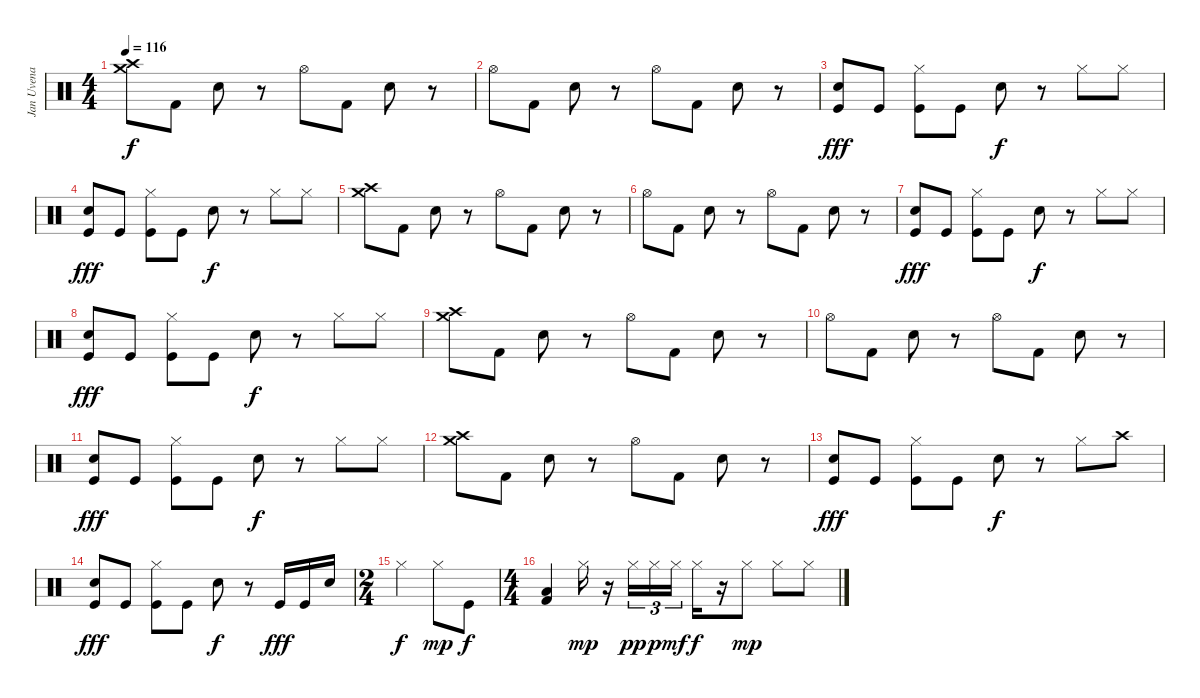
\track ("Jan Uvena" "Jan Uvena") {instrument percussion}
\staff {score}
\articulation defaults
\ts (4 4)
\tempo 116
\clef neutral
\ks c
("Crash medium (hit)" "Crash high (hit)").8{dy f} "Kick (hit) 2".8 "Snare (hit) 2".8 r.8 "Hi-Hat (open)".8 "Kick (hit) 2".8 "Snare (hit) 2".8 r.8 |
"Hi-Hat (open)".8 "Kick (hit) 2".8 "Snare (hit) 2".8 r.8 "Hi-Hat (open)".8 "Kick (hit) 2".8 "Snare (hit) 2".8 r.8 |
("Snare (hit) 2" "Kick (hit)").8{dy fff} "Kick (hit)".8 ("Hi-Hat (closed)" "Kick (hit)").8 "Kick (hit)".8 "Snare (hit) 2".8{dy f} r.8 "Hi-Hat (closed)".8 "Hi-Hat (closed)".8 |
("Snare (hit) 2" "Kick (hit)").8{dy fff} "Kick (hit)".8 ("Hi-Hat (closed)" "Kick (hit)").8 "Kick (hit)".8 "Snare (hit) 2".8{dy f} r.8 "Hi-Hat (closed)".8 "Hi-Hat (closed)".8 |
("Crash medium (hit)" "Crash high (hit)").8 "Kick (hit) 2".8 "Snare (hit) 2".8 r.8 "Hi-Hat (open)".8 "Kick (hit) 2".8 "Snare (hit) 2".8 r.8 |
"Hi-Hat (open)".8 "Kick (hit) 2".8 "Snare (hit) 2".8 r.8 "Hi-Hat (open)".8 "Kick (hit) 2".8 "Snare (hit) 2".8 r.8 |
("Snare (hit) 2" "Kick (hit)").8{dy fff} "Kick (hit)".8 ("Hi-Hat (closed)" "Kick (hit)").8 "Kick (hit)".8 "Snare (hit) 2".8{dy f} r.8 "Hi-Hat (closed)".8 "Hi-Hat (closed)".8 |
("Snare (hit) 2" "Kick (hit)").8{dy fff} "Kick (hit)".8 ("Hi-Hat (closed)" "Kick (hit)").8 "Kick (hit)".8 "Snare (hit) 2".8{dy f} r.8 "Hi-Hat (closed)".8 "Hi-Hat (closed)".8 |
("Crash medium (hit)" "Crash high (hit)").8 "Kick (hit) 2".8 "Snare (hit) 2".8 r.8 "Hi-Hat (open)".8 "Kick (hit) 2".8 "Snare (hit) 2".8 r.8 |
"Hi-Hat (open)".8 "Kick (hit) 2".8 "Snare (hit) 2".8 r.8 "Hi-Hat (open)".8 "Kick (hit) 2".8 "Snare (hit) 2".8 r.8 |
("Snare (hit) 2" "Kick (hit)").8{dy fff} "Kick (hit)".8 ("Hi-Hat (closed)" "Kick (hit)").8 "Kick (hit)".8 "Snare (hit) 2".8{dy f} r.8 "Hi-Hat (closed)".8 "Hi-Hat (closed)".8 |
("Crash medium (hit)" "Crash high (hit)").8 "Kick (hit) 2".8 "Snare (hit) 2".8 r.8 "Hi-Hat (open)".8 "Kick (hit) 2".8 "Snare (hit) 2".8 r.8 |
("Snare (hit) 2" "Kick (hit)").8{dy fff} "Kick (hit)".8 ("Hi-Hat (closed)" "Kick (hit)").8 "Kick (hit)".8 "Snare (hit) 2".8{dy f} r.8 "Hi-Hat (closed)".8 "Crash high (hit)".8 |
("Snare (hit) 2" "Kick (hit)").8{dy fff} "Kick (hit)".8 ("Hi-Hat (closed)" "Kick (hit)").8 "Kick (hit)".8 "Snare (hit) 2".8{dy f} r.8 "Kick (hit)".16{dy fff} "Kick (hit)".16 "Snare (hit) 2".16 |
\ts (2 4)
"Hi-Hat (closed)".4{dy f} "Hi-Hat (closed)".8{dy mp} "Kick (hit)".8{dy f} |
\ts (4 4)
("Kick (hit) 2" "Low Floor Tom (hit)").4 "Hi-Hat (closed)".16{dy mp} r.16 "Hi-Hat (closed)".16{tu (3 2) dy pp} "Hi-Hat (closed)".16{tu (3 2) dy p} "Hi-Hat (closed)".16{tu (3 2) dy mf} "Hi-Hat (closed)".16{dy f} r.16 "Hi-Hat (closed)".8{dy mp} "Hi-Hat (closed)".8 "Hi-Hat (closed)".8
